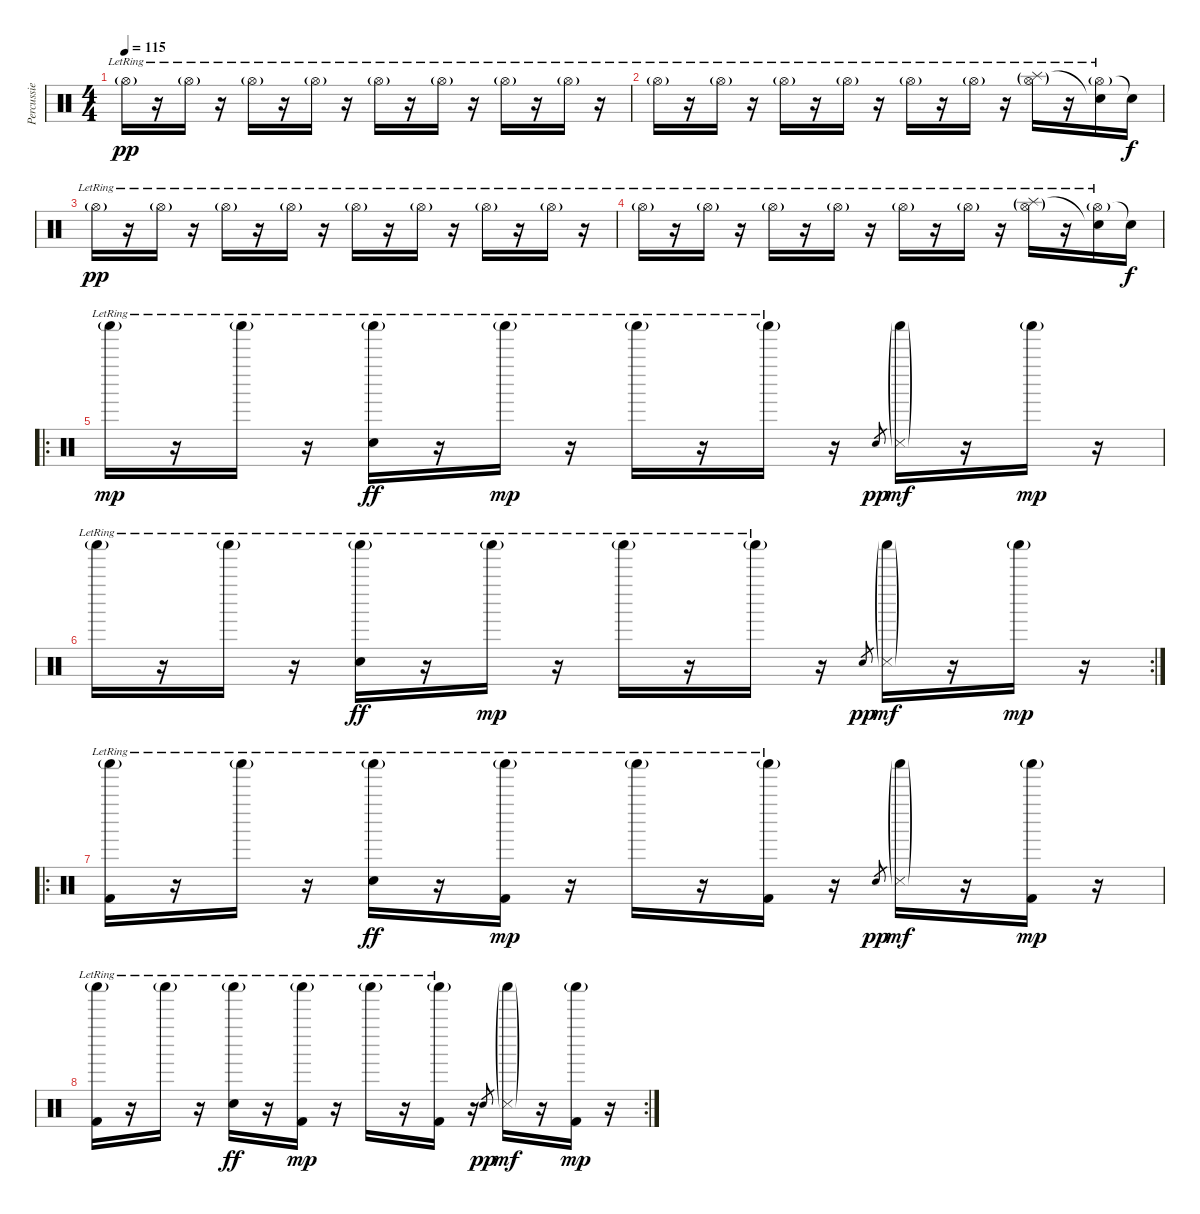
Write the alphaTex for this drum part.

\track ("Percussie" "Percussie") {instrument percussion}
\staff {score}
\articulation defaults
\ts (4 4)
\tempo 115
\clef neutral
\ks c "Hi-Hat (open)"{g lr}.16{dy pp}
r.16 "Hi-Hat (open)"{g lr}.16 r.16 "Hi-Hat (open)"{g lr}.16 r.16 "Hi-Hat (open)"{g lr}.16 r.16 "Hi-Hat (open)"{g lr}.16 r.16 "Hi-Hat (open)"{g lr}.16 r.16 "Hi-Hat (open)"{g lr}.16 r.16 "Hi-Hat (open)"{g lr}.16 r.16 |
"Hi-Hat (open)"{g lr}.16 r.16 "Hi-Hat (open)"{g lr}.16 r.16 "Hi-Hat (open)"{g lr}.16 r.16 "Hi-Hat (open)"{g lr}.16 r.16 "Hi-Hat (open)"{g lr}.16 r.16 "Hi-Hat (open)"{g lr}.16 r.16 ("Hi-Hat (open)"{g lr} "Splash (hit)"{g}).16 r.16 ("Hi-Hat (open)"{g lr} "Snare (hit)"{t}).16 "Snare (hit)"{t}.16{dy f} |
"Hi-Hat (open)"{g lr}.16{dy pp} r.16 "Hi-Hat (open)"{g lr}.16 r.16 "Hi-Hat (open)"{g lr}.16 r.16 "Hi-Hat (open)"{g lr}.16 r.16 "Hi-Hat (open)"{g lr}.16 r.16 "Hi-Hat (open)"{g lr}.16 r.16 "Hi-Hat (open)"{g lr}.16 r.16 "Hi-Hat (open)"{g lr}.16 r.16 |
"Hi-Hat (open)"{g lr}.16 r.16 "Hi-Hat (open)"{g lr}.16 r.16 "Hi-Hat (open)"{g lr}.16 r.16 "Hi-Hat (open)"{g lr}.16 r.16 "Hi-Hat (open)"{g lr}.16 r.16 "Hi-Hat (open)"{g lr}.16 r.16 ("Hi-Hat (open)"{g lr} "Splash (hit)"{g}).16 r.16 ("Hi-Hat (open)"{g lr} "Snare (hit)"{t}).16 "Snare (hit)"{t}.16{dy f} |
\ro "Shaker (hit)"{g lr}.16{dy mp}
r.16 "Shaker (hit)"{g lr}.16 r.16 ("Shaker (hit)"{g lr} "Hand Clap (hit)"{lr}).16{dy ff} r.16 "Shaker (hit)"{g lr}.16{dy mp} r.16 "Shaker (hit)"{g lr}.16 r.16 "Shaker (hit)"{g lr}.16 r.16 "Snare (hit)".8{gr dy pp} ("Shaker (hit)"{g} "Metronome (hit)"{g}).16{dy mf} r.16 "Shaker (hit)"{g}.16{dy mp} r.16 |
\rc 2 "Shaker (hit)"{g lr}.16
r.16 "Shaker (hit)"{g lr}.16 r.16 ("Shaker (hit)"{g lr} "Hand Clap (hit)"{lr}).16{dy ff} r.16 "Shaker (hit)"{g lr}.16{dy mp} r.16 "Shaker (hit)"{g lr}.16 r.16 "Shaker (hit)"{g lr}.16 r.16 "Snare (hit)".8{gr dy pp} ("Shaker (hit)"{g} "Metronome (hit)"{g}).16{dy mf} r.16 "Shaker (hit)"{g}.16{dy mp} r.16 |
\ro
("Shaker (hit)"{g lr} "Kick (hit) 2").16 r.16 "Shaker (hit)"{g lr}.16 r.16 ("Shaker (hit)"{g lr} "Hand Clap (hit)"{lr}).16{dy ff} r.16 ("Shaker (hit)"{g lr} "Kick (hit) 2").16{dy mp} r.16 "Shaker (hit)"{g lr}.16 r.16 ("Shaker (hit)"{g lr} "Kick (hit) 2").16 r.16 "Snare (hit)".8{gr dy pp} ("Shaker (hit)"{g} "Metronome (hit)"{g}).16{dy mf} r.16 ("Shaker (hit)"{g} "Kick (hit) 2").16{dy mp} r.16 |
\rc 2
("Shaker (hit)"{g lr} "Kick (hit) 2").16 r.16 "Shaker (hit)"{g lr}.16 r.16 ("Shaker (hit)"{g lr} "Hand Clap (hit)"{lr}).16{dy ff} r.16 ("Shaker (hit)"{g lr} "Kick (hit) 2").16{dy mp} r.16 "Shaker (hit)"{g lr}.16 r.16 ("Shaker (hit)"{g lr} "Kick (hit) 2").16 r.16 "Snare (hit)".8{gr dy pp} ("Shaker (hit)"{g} "Metronome (hit)"{g}).16{dy mf} r.16 ("Shaker (hit)"{g} "Kick (hit) 2").16{dy mp} r.16
